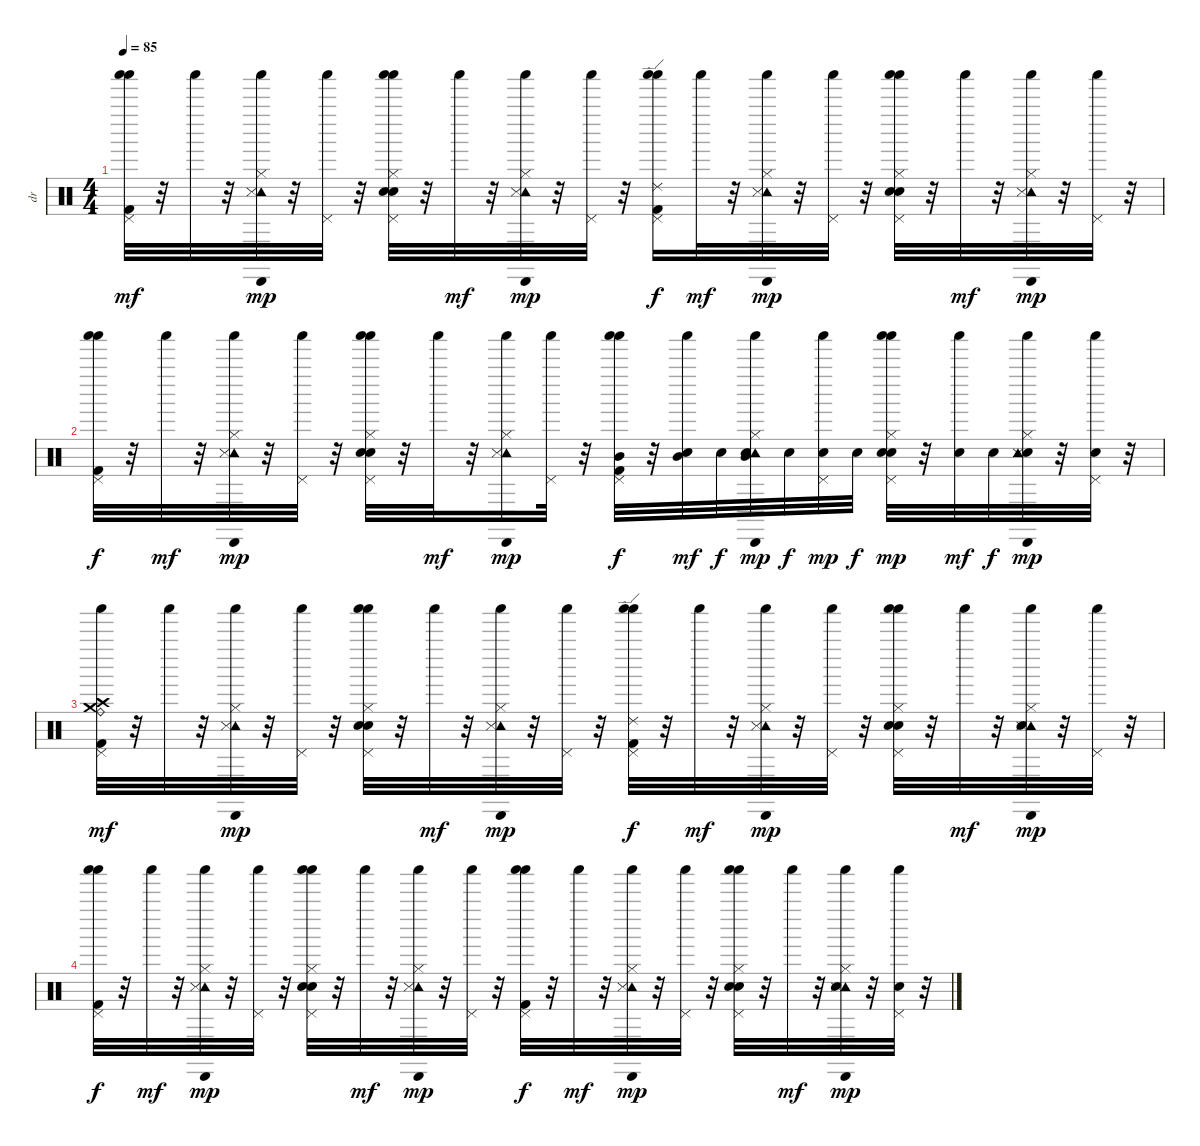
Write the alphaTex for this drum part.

\track ("dr" "dr") {instrument percussion}
\staff {score}
\articulation defaults
\ts (4 4)
\tempo 85
\clef neutral
\ks c
("Pedal Hi-Hat (hit)" "Shaker (hit)" "Shaker (hit)" "Kick (hit) 2").32{dy mf volume 10} r.32 "Shaker (hit)".32{volume 10} r.32 ("Hi-Hat (closed)" "Cabasa (hit)" "Tambourine (hit)" "Shaker (hit)" "Snare (side stick) 3").32{dy mp volume 10} r.32 ("Pedal Hi-Hat (hit)" "Shaker (hit)").32{volume 10} r.32 ("Electric Snare (hit)" "Pedal Hi-Hat (hit)" "Shaker (hit)" "Shaker (hit)" "Hi-Hat (closed)" "Snare (hit) 2").32{volume 10} r.32 "Shaker (hit)".32{dy mf volume 10} r.32 ("Hi-Hat (closed)" "Tambourine (hit)" "Cabasa (hit)" "Shaker (hit)" "Snare (side stick) 3").32{dy mp volume 10} r.32 ("Pedal Hi-Hat (hit)" "Shaker (hit)").32{volume 10} r.32 ("Pedal Hi-Hat (hit)" "Shaker (hit)" "Shaker (hit)" "Kick (hit) 2" "Ride (edge) 2").16{dy f volume 10} "Shaker (hit)".32{dy mf volume 10} r.32 ("Hi-Hat (closed)" "Cabasa (hit)" "Tambourine (hit)" "Shaker (hit)" "Snare (side stick) 3").32{dy mp volume 10} r.32 ("Pedal Hi-Hat (hit)" "Shaker (hit)").32{volume 10} r.32 ("Electric Snare (hit)" "Pedal Hi-Hat (hit)" "Shaker (hit)" "Shaker (hit)" "Hi-Hat (closed)" "Snare (hit) 2").32{volume 10} r.32 "Shaker (hit)".32{dy mf volume 9} r.32 ("Hi-Hat (closed)" "Cabasa (hit)" "Tambourine (hit)" "Shaker (hit)" "Snare (side stick) 3").32{dy mp volume 9} r.32 ("Pedal Hi-Hat (hit)" "Shaker (hit)").32{volume 9} r.32 |
("Pedal Hi-Hat (hit)" "Shaker (hit)" "Shaker (hit)" "Kick (hit) 2").32{dy f volume 9} r.32 "Shaker (hit)".32{dy mf volume 9} r.32 ("Hi-Hat (closed)" "Cabasa (hit)" "Tambourine (hit)" "Shaker (hit)" "Snare (side stick) 3").32{dy mp volume 9} r.32 ("Pedal Hi-Hat (hit)" "Shaker (hit)").32{volume 9} r.32 ("Pedal Hi-Hat (hit)" "Shaker (hit)" "Shaker (hit)" "Hi-Hat (closed)" "Electric Snare (hit)" "Snare (hit) 2").32{volume 9} r.32 "Shaker (hit)".32{dy mf volume 9} r.32 ("Hi-Hat (closed)" "Cabasa (hit)" "Tambourine (hit)" "Shaker (hit)" "Snare (side stick) 3").16{dy mp volume 9} ("Pedal Hi-Hat (hit)" "Shaker (hit)").32{volume 8} r.32 ("Pedal Hi-Hat (hit)" "Shaker (hit)" "Shaker (hit)" "Kick (hit) 2" "Mid Tom (hit)").32{dy f volume 8} r.32 ("Shaker (hit)" "Mid Tom (hit)" "Snare (hit) 2").32{dy mf volume 8} "Snare (hit) 2".32{dy f volume 8} ("Hi-Hat (closed)" "Cabasa (hit)" "Tambourine (hit)" "Shaker (hit)" "Mid Tom (hit)" "Snare (hit) 2").32{dy mp volume 8} "Snare (hit) 2".32{dy f volume 8} ("Pedal Hi-Hat (hit)" "Shaker (hit)" "Snare (hit) 2").32{dy mp volume 8} "Snare (hit) 2".32{dy f volume 8} ("Electric Snare (hit)" "Pedal Hi-Hat (hit)" "Shaker (hit)" "Shaker (hit)" "Hi-Hat (closed)" "Snare (hit) 2").32{dy mp volume 8} r.32 ("Shaker (hit)" "Snare (hit) 2").32{dy mf volume 8} "Snare (hit) 2".32{dy f volume 8} ("Snare (hit) 2" "Hi-Hat (closed)" "Cabasa (hit)" "Tambourine (hit)" "Shaker (hit)" "Snare (side stick) 3").32{dy mp volume 8} r.32 ("Pedal Hi-Hat (hit)" "Shaker (hit)" "Snare (hit) 2").32{volume 8} r.32 |
("Kick (hit) 2" "Crash high (hit)" "Ride (bell)" "Crash medium (hit)" "Pedal Hi-Hat (hit)" "Shaker (hit)").32{dy mf volume 8} r.32 "Shaker (hit)".32{volume 8} r.32 ("Hi-Hat (closed)" "Tambourine (hit)" "Cabasa (hit)" "Shaker (hit)" "Snare (side stick) 3").32{dy mp volume 8} r.32 ("Pedal Hi-Hat (hit)" "Shaker (hit)").32{volume 8} r.32 ("Electric Snare (hit)" "Pedal Hi-Hat (hit)" "Shaker (hit)" "Shaker (hit)" "Hi-Hat (closed)" "Snare (hit) 2").32{volume 7} r.32 "Shaker (hit)".32{dy mf volume 7} r.32 ("Hi-Hat (closed)" "Tambourine (hit)" "Cabasa (hit)" "Shaker (hit)" "Snare (side stick) 3").32{dy mp volume 7} r.32 ("Pedal Hi-Hat (hit)" "Shaker (hit)").32{volume 7} r.32 ("Pedal Hi-Hat (hit)" "Shaker (hit)" "Shaker (hit)" "Kick (hit) 2" "Ride (edge) 2").32{dy f volume 7} r.32 "Shaker (hit)".32{dy mf volume 7} r.32 ("Hi-Hat (closed)" "Tambourine (hit)" "Cabasa (hit)" "Shaker (hit)" "Snare (side stick) 3").32{dy mp volume 7} r.32 ("Pedal Hi-Hat (hit)" "Shaker (hit)").32{volume 7} r.32 ("Electric Snare (hit)" "Pedal Hi-Hat (hit)" "Shaker (hit)" "Shaker (hit)" "Hi-Hat (closed)" "Snare (hit) 2").32{volume 7} r.32 "Shaker (hit)".32{dy mf volume 7} r.32 ("Hi-Hat (closed)" "Tambourine (hit)" "Cabasa (hit)" "Shaker (hit)" "Snare (hit) 2" "Snare (side stick) 3").32{dy mp volume 7} r.32 ("Pedal Hi-Hat (hit)" "Shaker (hit)").32{volume 7} r.32 |
("Pedal Hi-Hat (hit)" "Shaker (hit)" "Shaker (hit)" "Kick (hit) 2").32{dy f volume 6} r.32 "Shaker (hit)".32{dy mf volume 6} r.32 ("Hi-Hat (closed)" "Tambourine (hit)" "Cabasa (hit)" "Shaker (hit)" "Snare (side stick) 3").32{dy mp volume 6} r.32 ("Pedal Hi-Hat (hit)" "Shaker (hit)").32{volume 6} r.32 ("Electric Snare (hit)" "Pedal Hi-Hat (hit)" "Shaker (hit)" "Shaker (hit)" "Hi-Hat (closed)" "Snare (hit) 2").32{volume 6} r.32 "Shaker (hit)".32{dy mf volume 6} r.32 ("Hi-Hat (closed)" "Tambourine (hit)" "Cabasa (hit)" "Shaker (hit)" "Snare (side stick) 3").32{dy mp volume 6} r.32 ("Pedal Hi-Hat (hit)" "Shaker (hit)").32{volume 6} r.32 ("Pedal Hi-Hat (hit)" "Shaker (hit)" "Shaker (hit)" "Kick (hit) 2").32{dy f volume 6} r.32 "Shaker (hit)".32{dy mf volume 6} r.32 ("Hi-Hat (closed)" "Tambourine (hit)" "Cabasa (hit)" "Shaker (hit)" "Snare (side stick) 3").32{dy mp volume 6} r.32 ("Pedal Hi-Hat (hit)" "Shaker (hit)").32{volume 6} r.32 ("Electric Snare (hit)" "Pedal Hi-Hat (hit)" "Shaker (hit)" "Shaker (hit)" "Hi-Hat (closed)" "Snare (hit) 2").32{volume 6} r.32 "Shaker (hit)".32{dy mf volume 6} r.32 ("Hi-Hat (closed)" "Tambourine (hit)" "Cabasa (hit)" "Shaker (hit)" "Snare (hit) 2" "Snare (side stick) 3").32{dy mp volume 6} r.32 ("Pedal Hi-Hat (hit)" "Shaker (hit)" "Snare (hit) 2").32{volume 6} r.32
